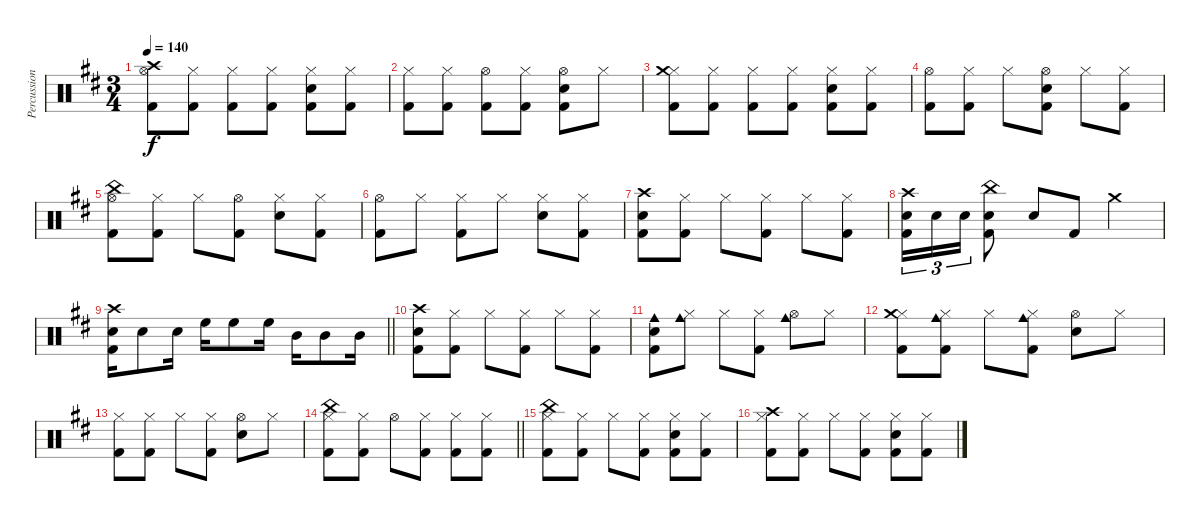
\track ("Percussions" "Percussion") {instrument percussion}
\staff {score}
\articulation defaults
\ts (3 4)
\tempo 140
\clef neutral
\ks d
("Hi-Hat (open)" "Crash high (hit)" "Kick (hit) 2").8{dy f volume 15 balance 8} ("Hi-Hat (closed)" "Kick (hit) 2").8 ("Hi-Hat (closed)" "Kick (hit) 2").8 ("Hi-Hat (closed)" "Kick (hit) 2").8 ("Hi-Hat (closed)" "Snare (hit) 2" "Kick (hit) 2").8 ("Hi-Hat (closed)" "Kick (hit) 2").8 |
("Hi-Hat (closed)" "Kick (hit) 2").8 ("Hi-Hat (closed)" "Kick (hit) 2").8 ("Hi-Hat (open)" "Kick (hit) 2").8 ("Hi-Hat (closed)" "Kick (hit) 2").8 ("Hi-Hat (open)" "Snare (hit) 2" "Kick (hit) 2").8 "Hi-Hat (closed)".8 |
("Hi-Hat (closed)" "Crash medium (hit)" "Kick (hit) 2").8 ("Hi-Hat (closed)" "Kick (hit) 2").8 ("Hi-Hat (closed)" "Kick (hit) 2").8 ("Hi-Hat (closed)" "Kick (hit) 2").8 ("Hi-Hat (closed)" "Snare (hit) 2" "Kick (hit) 2").8 ("Hi-Hat (closed)" "Kick (hit) 2").8 |
("Hi-Hat (open)" "Kick (hit) 2").8 ("Hi-Hat (closed)" "Kick (hit) 2").8 "Hi-Hat (closed)".8 ("Hi-Hat (open)" "Snare (hit) 2" "Kick (hit) 2").8 "Hi-Hat (closed)".8 ("Hi-Hat (closed)" "Kick (hit) 2").8 |
("Hi-Hat (open)" "China (hit)" "Kick (hit) 2").8 ("Hi-Hat (closed)" "Kick (hit) 2").8 "Hi-Hat (closed)".8 ("Hi-Hat (open)" "Kick (hit) 2").8 ("Hi-Hat (closed)" "Snare (hit) 2").8 ("Hi-Hat (closed)" "Kick (hit) 2").8 |
("Hi-Hat (open)" "Kick (hit) 2").8 "Hi-Hat (closed)".8 ("Hi-Hat (closed)" "Kick (hit) 2").8 "Hi-Hat (closed)".8 ("Hi-Hat (closed)" "Snare (hit) 2").8 ("Hi-Hat (closed)" "Kick (hit) 2").8 |
("Crash high (hit)" "Snare (hit) 2" "Kick (hit) 2").8 ("Hi-Hat (closed)" "Kick (hit) 2").8 "Hi-Hat (closed)".8 ("Hi-Hat (closed)" "Kick (hit) 2").8 "Hi-Hat (closed)".8 ("Hi-Hat (closed)" "Kick (hit) 2").8 |
("Crash high (hit)" "Snare (hit) 2" "Kick (hit) 2").16{tu (3 2)} "Snare (hit) 2".16{tu (3 2)} "Snare (hit) 2".16{tu (3 2)} ("China (hit)" "Snare (hit) 2" "Kick (hit) 2").8 "Snare (hit) 2".8 "Kick (hit) 2".8 "Crash medium (hit)".4 |
\barLineRight lightlight
("Crash high (hit)" "Snare (hit) 2" "Kick (hit) 2").16 "Snare (hit) 2".8 "Snare (hit) 2".16 "High Floor Tom (hit)".16 "High Floor Tom (hit)".8 "High Floor Tom (hit)".16 "Mid Tom (hit)".16 "Mid Tom (hit)".8 "Mid Tom (hit)".16 |
("Crash high (hit)" "Snare (hit) 2" "Kick (hit) 2").8{volume 13 balance 8} ("Hi-Hat (closed)" "Kick (hit) 2").8 "Hi-Hat (closed)".8 ("Hi-Hat (closed)" "Kick (hit) 2").8 "Hi-Hat (closed)".8 ("Hi-Hat (closed)" "Kick (hit) 2").8 |
("Cowbell medium (hit)" "Snare (hit) 2" "Kick (hit) 2").8 ("Hi-Hat (closed)" "Cowbell medium (hit)").8 "Hi-Hat (closed)".8 ("Hi-Hat (closed)" "Kick (hit) 2").8 ("Hi-Hat (open)" "Cowbell medium (hit)").8 "Hi-Hat (closed)".8 |
("Hi-Hat (closed)" "Crash medium (hit)" "Kick (hit) 2").8 ("Hi-Hat (closed)" "Cowbell medium (hit)" "Kick (hit) 2").8 "Hi-Hat (closed)".8 ("Hi-Hat (closed)" "Cowbell medium (hit)" "Kick (hit) 2").8 ("Hi-Hat (open)" "Snare (hit) 2").8 "Hi-Hat (closed)".8 |
("Hi-Hat (closed)" "Kick (hit) 2").8 ("Hi-Hat (closed)" "Kick (hit) 2").8 "Hi-Hat (closed)".8 ("Hi-Hat (closed)" "Kick (hit) 2").8 ("Hi-Hat (open)" "Snare (hit) 2").8 "Hi-Hat (closed)".8 |
\barLineRight lightlight
("Hi-Hat (closed)" "China (hit)" "Kick (hit) 2").8 ("Hi-Hat (closed)" "Kick (hit) 2").8 "Hi-Hat (open)".8 ("Hi-Hat (closed)" "Kick (hit) 2").8 ("Hi-Hat (closed)" "Kick (hit) 2").8 ("Hi-Hat (closed)" "Kick (hit) 2").8 |
("Hi-Hat (closed)" "China (hit)" "Kick (hit) 2").8 ("Hi-Hat (closed)" "Kick (hit) 2").8 "Hi-Hat (closed)".8 ("Hi-Hat (closed)" "Kick (hit) 2").8 ("Hi-Hat (closed)" "Snare (hit) 2" "Kick (hit) 2").8 ("Hi-Hat (closed)" "Kick (hit) 2").8 |
("Hi-Hat (closed)" "Crash high (hit)" "Kick (hit) 2").8 ("Hi-Hat (closed)" "Kick (hit) 2").8 "Hi-Hat (closed)".8 ("Hi-Hat (closed)" "Kick (hit) 2").8 ("Hi-Hat (closed)" "Snare (hit) 2" "Kick (hit) 2").8 ("Hi-Hat (closed)" "Kick (hit) 2").8
